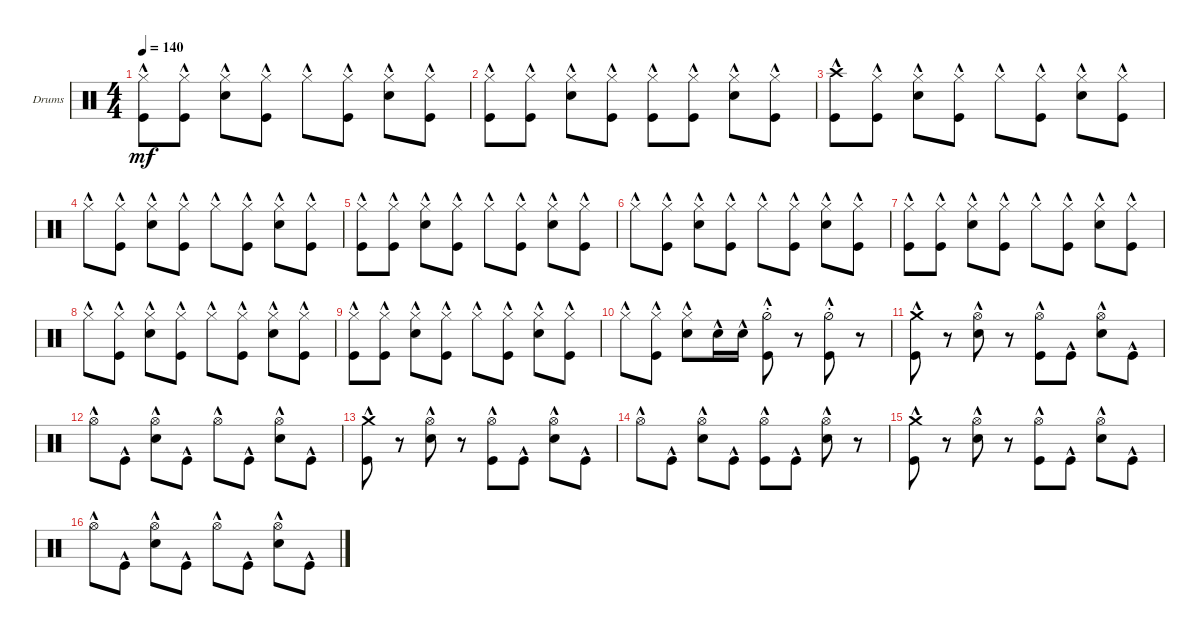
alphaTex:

\defaultSystemsLayout 4
\bracketExtendMode groupsimilarinstruments
\firstSystemTrackNameOrientation horizontal
\otherSystemsTrackNameOrientation horizontal
\track ("Drumkit" "Drums") {instrument percussion}
\staff {score}
\articulation defaults
\ts (4 4)
\tempo 140
\clef neutral
\ks c
("Kick (hit)"{hac} "Hi-Hat (closed)"{hac}).8{dy mf} ("Hi-Hat (closed)"{hac} "Kick (hit)"{hac}).8 ("Hi-Hat (closed)"{hac} "Snare (hit) 2"{hac}).8 ("Hi-Hat (closed)"{hac} "Kick (hit)"{hac}).8 "Hi-Hat (closed)"{hac}.8 ("Hi-Hat (closed)"{hac} "Kick (hit)"{hac}).8 ("Hi-Hat (closed)"{hac} "Snare (hit) 2"{hac}).8 ("Hi-Hat (closed)"{hac} "Kick (hit)"{hac}).8 |
("Hi-Hat (closed)"{hac} "Kick (hit)"{hac}).8 ("Hi-Hat (closed)"{hac} "Kick (hit)"{hac}).8 ("Hi-Hat (closed)"{hac} "Snare (hit) 2"{hac}).8 ("Hi-Hat (closed)"{hac} "Kick (hit)"{hac}).8 ("Hi-Hat (closed)"{hac} "Kick (hit)"{hac}).8 ("Hi-Hat (closed)"{hac} "Kick (hit)"{hac}).8 ("Hi-Hat (closed)"{hac} "Snare (hit) 2"{hac}).8 ("Hi-Hat (closed)"{hac} "Kick (hit)"{hac}).8 |
("Kick (hit)"{hac} "Crash high (hit)"{hac}).8 ("Hi-Hat (closed)"{hac} "Kick (hit)"{hac}).8 ("Hi-Hat (closed)"{hac} "Snare (hit) 2"{hac}).8 ("Hi-Hat (closed)"{hac} "Kick (hit)"{hac}).8 "Hi-Hat (closed)"{hac}.8 ("Hi-Hat (closed)"{hac} "Kick (hit)"{hac}).8 ("Hi-Hat (closed)"{hac} "Snare (hit) 2"{hac}).8 ("Hi-Hat (closed)"{hac} "Kick (hit)"{hac}).8 |
"Hi-Hat (closed)"{hac}.8 ("Hi-Hat (closed)"{hac} "Kick (hit)"{hac}).8 ("Hi-Hat (closed)"{hac} "Snare (hit) 2"{hac}).8 ("Hi-Hat (closed)"{hac} "Kick (hit)"{hac}).8 "Hi-Hat (closed)"{hac}.8 ("Hi-Hat (closed)"{hac} "Kick (hit)"{hac}).8 ("Hi-Hat (closed)"{hac} "Snare (hit) 2"{hac}).8 ("Hi-Hat (closed)"{hac} "Kick (hit)"{hac}).8 |
("Kick (hit)"{hac} "Hi-Hat (closed)"{hac}).8 ("Hi-Hat (closed)"{hac} "Kick (hit)"{hac}).8 ("Hi-Hat (closed)"{hac} "Snare (hit) 2"{hac}).8 ("Hi-Hat (closed)"{hac} "Kick (hit)"{hac}).8 "Hi-Hat (closed)"{hac}.8 ("Hi-Hat (closed)"{hac} "Kick (hit)"{hac}).8 ("Hi-Hat (closed)"{hac} "Snare (hit) 2"{hac}).8 ("Hi-Hat (closed)"{hac} "Kick (hit)"{hac}).8 |
"Hi-Hat (closed)"{hac}.8 ("Hi-Hat (closed)"{hac} "Kick (hit)"{hac}).8 ("Hi-Hat (closed)"{hac} "Snare (hit) 2"{hac}).8 ("Hi-Hat (closed)"{hac} "Kick (hit)"{hac}).8 "Hi-Hat (closed)"{hac}.8 ("Hi-Hat (closed)"{hac} "Kick (hit)"{hac}).8 ("Hi-Hat (closed)"{hac} "Snare (hit) 2"{hac}).8 ("Hi-Hat (closed)"{hac} "Kick (hit)"{hac}).8 |
("Kick (hit)"{hac} "Hi-Hat (closed)"{hac}).8 ("Hi-Hat (closed)"{hac} "Kick (hit)"{hac}).8 ("Hi-Hat (closed)"{hac} "Snare (hit) 2"{hac}).8 ("Hi-Hat (closed)"{hac} "Kick (hit)"{hac}).8 "Hi-Hat (closed)"{hac}.8 ("Hi-Hat (closed)"{hac} "Kick (hit)"{hac}).8 ("Hi-Hat (closed)"{hac} "Snare (hit) 2"{hac}).8 ("Hi-Hat (closed)"{hac} "Kick (hit)"{hac}).8 |
"Hi-Hat (closed)"{hac}.8 ("Hi-Hat (closed)"{hac} "Kick (hit)"{hac}).8 ("Hi-Hat (closed)"{hac} "Snare (hit) 2"{hac}).8 ("Hi-Hat (closed)"{hac} "Kick (hit)"{hac}).8 "Hi-Hat (closed)"{hac}.8 ("Hi-Hat (closed)"{hac} "Kick (hit)"{hac}).8 ("Hi-Hat (closed)"{hac} "Snare (hit) 2"{hac}).8 ("Hi-Hat (closed)"{hac} "Kick (hit)"{hac}).8 |
("Kick (hit)"{hac} "Hi-Hat (closed)"{hac}).8 ("Hi-Hat (closed)"{hac} "Kick (hit)"{hac}).8 ("Hi-Hat (closed)"{hac} "Snare (hit) 2"{hac}).8 ("Hi-Hat (closed)"{hac} "Kick (hit)"{hac}).8 "Hi-Hat (closed)"{hac}.8 ("Hi-Hat (closed)"{hac} "Kick (hit)"{hac}).8 ("Hi-Hat (closed)"{hac} "Snare (hit) 2"{hac}).8 ("Hi-Hat (closed)"{hac} "Kick (hit)"{hac}).8 |
"Hi-Hat (closed)"{hac}.8 ("Hi-Hat (closed)"{hac} "Kick (hit)"{hac}).8 ("Hi-Hat (closed)"{hac} "Snare (hit) 2"{hac}).8 "Snare (hit) 2"{hac}.16 "Snare (hit) 2"{hac}.16 ("Kick (hit)"{hac st} "Hi-Hat (half)").8 r.8 ("Kick (hit)"{hac st} "Hi-Hat (half)").8 r.8 |
("Kick (hit)"{hac} "Crash medium (hit)"{hac}).8 r.8 ("Hi-Hat (open)"{hac} "Snare (hit) 2"{hac}).8 r.8 ("Hi-Hat (open)"{hac} "Kick (hit)"{hac}).8 "Kick (hit)"{hac}.8 ("Hi-Hat (open)"{hac} "Snare (hit) 2"{hac}).8 "Kick (hit)"{hac}.8 |
"Hi-Hat (open)"{hac}.8 "Kick (hit)"{hac}.8 ("Hi-Hat (open)"{hac} "Snare (hit) 2"{hac}).8 "Kick (hit)"{hac}.8 "Hi-Hat (open)"{hac}.8 "Kick (hit)"{hac}.8 ("Hi-Hat (open)"{hac} "Snare (hit) 2"{hac}).8 "Kick (hit)"{hac}.8 |
("Kick (hit)"{hac} "Crash medium (hit)"{hac}).8 r.8 ("Hi-Hat (open)"{hac} "Snare (hit) 2"{hac}).8 r.8 ("Hi-Hat (open)"{hac} "Kick (hit)"{hac}).8 "Kick (hit)"{hac}.8 ("Hi-Hat (open)"{hac} "Snare (hit) 2"{hac}).8 "Kick (hit)"{hac}.8 |
"Hi-Hat (open)"{hac}.8 "Kick (hit)"{hac}.8 ("Hi-Hat (open)"{hac} "Snare (hit) 2"{hac}).8 "Kick (hit)"{hac}.8 ("Hi-Hat (open)"{hac} "Kick (hit)"{hac}).8 "Kick (hit)"{hac}.8 ("Hi-Hat (open)"{hac} "Snare (hit) 2"{hac}).8 r.8 |
("Kick (hit)"{hac} "Crash medium (hit)"{hac}).8 r.8 ("Hi-Hat (open)"{hac} "Snare (hit) 2"{hac}).8 r.8 ("Hi-Hat (open)"{hac} "Kick (hit)"{hac}).8 "Kick (hit)"{hac}.8 ("Hi-Hat (open)"{hac} "Snare (hit) 2"{hac}).8 "Kick (hit)"{hac}.8 |
"Hi-Hat (open)"{hac}.8 "Kick (hit)"{hac}.8 ("Hi-Hat (open)"{hac} "Snare (hit) 2"{hac}).8 "Kick (hit)"{hac}.8 "Hi-Hat (open)"{hac}.8 "Kick (hit)"{hac}.8 ("Hi-Hat (open)"{hac} "Snare (hit) 2"{hac}).8 "Kick (hit)"{hac}.8
